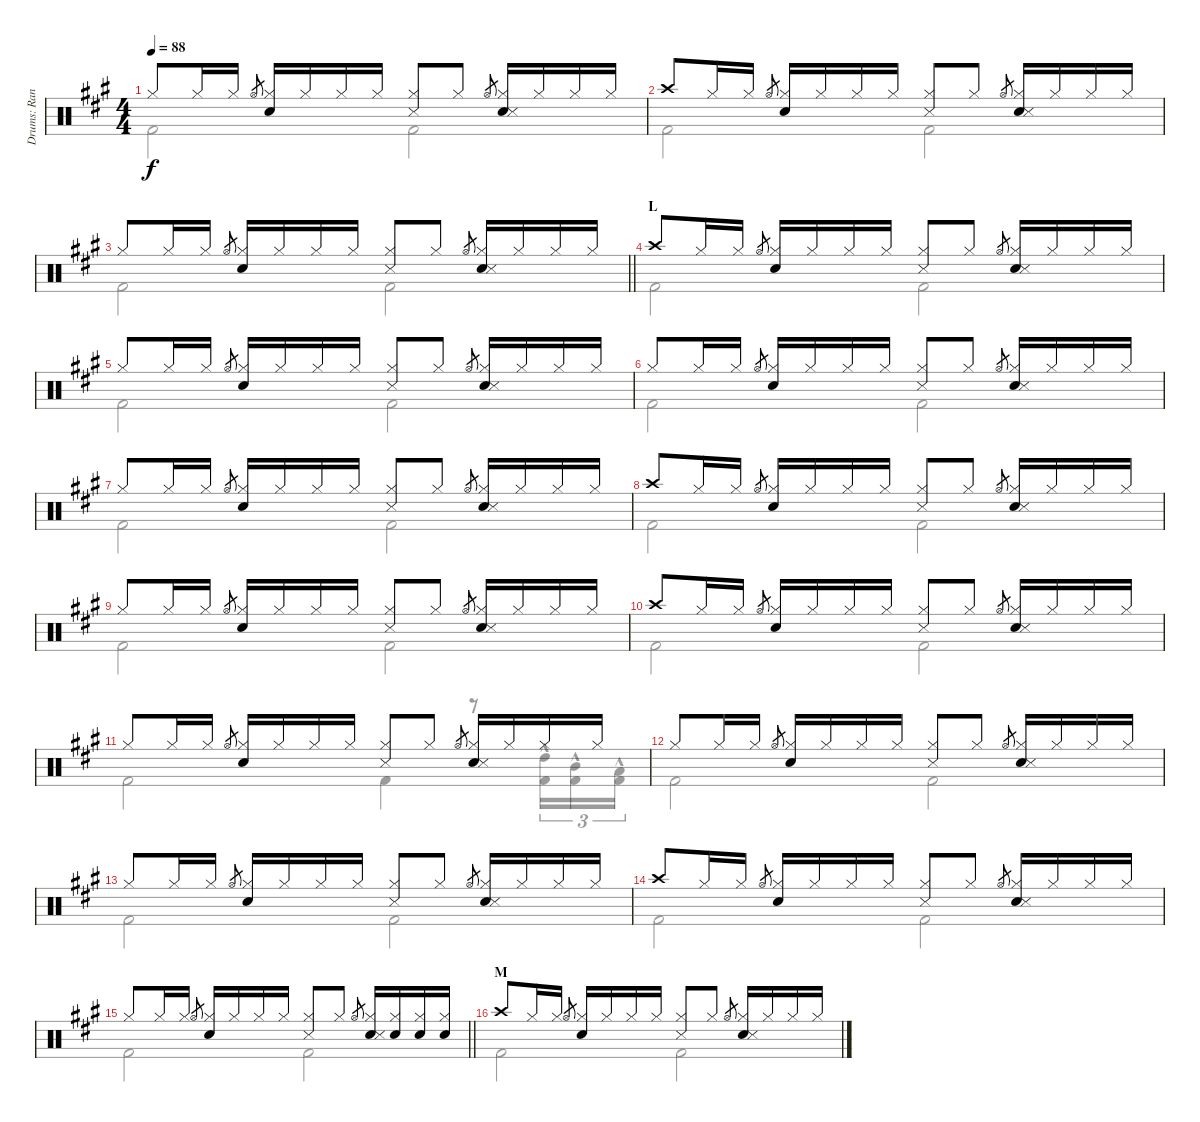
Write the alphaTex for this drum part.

\track ("Drums: Randy" "Drums: Ran") {instrument percussion}
\staff {score}
\articulation defaults
\voice
\ts (4 4)
\tempo 88
\clef neutral
\ks a "Hi-Hat (closed)".8{dy f} "Hi-Hat (closed)".16 "Hi-Hat (closed)".16 "Hi-Hat (open)".8{gr}
("Hi-Hat (closed)" "Electric Snare (hit)").16 "Hi-Hat (closed)".16 "Hi-Hat (closed)".16 "Hi-Hat (closed)".16 ("Hi-Hat (closed)" "Snare (side stick) 3").8 "Hi-Hat (closed)".8 "Hi-Hat (open)".8{gr} ("Hi-Hat (closed)" "Electric Snare (hit)" "Snare (side stick) 3").16 "Hi-Hat (closed)".16 "Hi-Hat (closed)".16 "Hi-Hat (closed)".16 |
"Crash high (hit)".8 "Hi-Hat (closed)".16 "Hi-Hat (closed)".16 "Hi-Hat (open)".8{gr} ("Hi-Hat (closed)" "Electric Snare (hit)").16 "Hi-Hat (closed)".16 "Hi-Hat (closed)".16 "Hi-Hat (closed)".16 ("Hi-Hat (closed)" "Snare (side stick) 3").8 "Hi-Hat (closed)".8 "Hi-Hat (open)".8{gr} ("Hi-Hat (closed)" "Electric Snare (hit)" "Snare (side stick) 3").16 "Hi-Hat (closed)".16 "Hi-Hat (closed)".16 "Hi-Hat (closed)".16 |
\barLineRight lightlight "Hi-Hat (closed)".8 "Hi-Hat (closed)".16 "Hi-Hat (closed)".16 "Hi-Hat (open)".8{gr}
("Hi-Hat (closed)" "Electric Snare (hit)").16 "Hi-Hat (closed)".16 "Hi-Hat (closed)".16 "Hi-Hat (closed)".16 ("Hi-Hat (closed)" "Snare (side stick) 3").8 "Hi-Hat (closed)".8 "Hi-Hat (open)".8{gr} ("Hi-Hat (closed)" "Electric Snare (hit)" "Snare (side stick) 3").16 "Hi-Hat (closed)".16 "Hi-Hat (closed)".16 "Hi-Hat (closed)".16 |
\section ("" "L")
"Crash high (hit)".8 "Hi-Hat (closed)".16 "Hi-Hat (closed)".16 "Hi-Hat (open)".8{gr} ("Hi-Hat (closed)" "Electric Snare (hit)").16 "Hi-Hat (closed)".16 "Hi-Hat (closed)".16 "Hi-Hat (closed)".16 ("Hi-Hat (closed)" "Snare (side stick) 3").8 "Hi-Hat (closed)".8 "Hi-Hat (open)".8{gr} ("Hi-Hat (closed)" "Electric Snare (hit)" "Snare (side stick) 3").16 "Hi-Hat (closed)".16 "Hi-Hat (closed)".16 "Hi-Hat (closed)".16 |
"Hi-Hat (closed)".8 "Hi-Hat (closed)".16 "Hi-Hat (closed)".16 "Hi-Hat (open)".8{gr} ("Hi-Hat (closed)" "Electric Snare (hit)").16 "Hi-Hat (closed)".16 "Hi-Hat (closed)".16 "Hi-Hat (closed)".16 ("Hi-Hat (closed)" "Snare (side stick) 3").8 "Hi-Hat (closed)".8 "Hi-Hat (open)".8{gr} ("Hi-Hat (closed)" "Electric Snare (hit)" "Snare (side stick) 3").16 "Hi-Hat (closed)".16 "Hi-Hat (closed)".16 "Hi-Hat (closed)".16 |
"Hi-Hat (closed)".8 "Hi-Hat (closed)".16 "Hi-Hat (closed)".16 "Hi-Hat (open)".8{gr} ("Hi-Hat (closed)" "Electric Snare (hit)").16 "Hi-Hat (closed)".16 "Hi-Hat (closed)".16 "Hi-Hat (closed)".16 ("Hi-Hat (closed)" "Snare (side stick) 3").8 "Hi-Hat (closed)".8 "Hi-Hat (open)".8{gr} ("Hi-Hat (closed)" "Electric Snare (hit)" "Snare (side stick) 3").16 "Hi-Hat (closed)".16 "Hi-Hat (closed)".16 "Hi-Hat (closed)".16 |
"Hi-Hat (closed)".8 "Hi-Hat (closed)".16 "Hi-Hat (closed)".16 "Hi-Hat (open)".8{gr} ("Hi-Hat (closed)" "Electric Snare (hit)").16 "Hi-Hat (closed)".16 "Hi-Hat (closed)".16 "Hi-Hat (closed)".16 ("Hi-Hat (closed)" "Snare (side stick) 3").8 "Hi-Hat (closed)".8 "Hi-Hat (open)".8{gr} ("Hi-Hat (closed)" "Electric Snare (hit)" "Snare (side stick) 3").16 "Hi-Hat (closed)".16 "Hi-Hat (closed)".16 "Hi-Hat (closed)".16 |
"Crash high (hit)".8 "Hi-Hat (closed)".16 "Hi-Hat (closed)".16 "Hi-Hat (open)".8{gr} ("Hi-Hat (closed)" "Electric Snare (hit)").16 "Hi-Hat (closed)".16 "Hi-Hat (closed)".16 "Hi-Hat (closed)".16 ("Hi-Hat (closed)" "Snare (side stick) 3").8 "Hi-Hat (closed)".8 "Hi-Hat (open)".8{gr} ("Hi-Hat (closed)" "Electric Snare (hit)" "Snare (side stick) 3").16 "Hi-Hat (closed)".16 "Hi-Hat (closed)".16 "Hi-Hat (closed)".16 |
"Hi-Hat (closed)".8 "Hi-Hat (closed)".16 "Hi-Hat (closed)".16 "Hi-Hat (open)".8{gr} ("Hi-Hat (closed)" "Electric Snare (hit)").16 "Hi-Hat (closed)".16 "Hi-Hat (closed)".16 "Hi-Hat (closed)".16 ("Hi-Hat (closed)" "Snare (side stick) 3").8 "Hi-Hat (closed)".8 "Hi-Hat (open)".8{gr} ("Hi-Hat (closed)" "Electric Snare (hit)" "Snare (side stick) 3").16 "Hi-Hat (closed)".16 "Hi-Hat (closed)".16 "Hi-Hat (closed)".16 |
"Crash high (hit)".8 "Hi-Hat (closed)".16 "Hi-Hat (closed)".16 "Hi-Hat (open)".8{gr} ("Hi-Hat (closed)" "Electric Snare (hit)").16 "Hi-Hat (closed)".16 "Hi-Hat (closed)".16 "Hi-Hat (closed)".16 ("Hi-Hat (closed)" "Snare (side stick) 3").8 "Hi-Hat (closed)".8 "Hi-Hat (open)".8{gr} ("Hi-Hat (closed)" "Electric Snare (hit)" "Snare (side stick) 3").16 "Hi-Hat (closed)".16 "Hi-Hat (closed)".16 "Hi-Hat (closed)".16 |
"Hi-Hat (closed)".8 "Hi-Hat (closed)".16 "Hi-Hat (closed)".16 "Hi-Hat (open)".8{gr} ("Hi-Hat (closed)" "Electric Snare (hit)").16 "Hi-Hat (closed)".16 "Hi-Hat (closed)".16 "Hi-Hat (closed)".16 ("Hi-Hat (closed)" "Snare (side stick) 3").8 "Hi-Hat (closed)".8 "Hi-Hat (open)".8{gr} ("Hi-Hat (closed)" "Electric Snare (hit)" "Snare (side stick) 3").16 "Hi-Hat (closed)".16 "Hi-Hat (closed)".16 "Hi-Hat (closed)".16 |
"Hi-Hat (closed)".8 "Hi-Hat (closed)".16 "Hi-Hat (closed)".16 "Hi-Hat (open)".8{gr} ("Hi-Hat (closed)" "Electric Snare (hit)").16 "Hi-Hat (closed)".16 "Hi-Hat (closed)".16 "Hi-Hat (closed)".16 ("Hi-Hat (closed)" "Snare (side stick) 3").8 "Hi-Hat (closed)".8 "Hi-Hat (open)".8{gr} ("Hi-Hat (closed)" "Electric Snare (hit)" "Snare (side stick) 3").16 "Hi-Hat (closed)".16 "Hi-Hat (closed)".16 "Hi-Hat (closed)".16 |
"Hi-Hat (closed)".8 "Hi-Hat (closed)".16 "Hi-Hat (closed)".16 "Hi-Hat (open)".8{gr} ("Hi-Hat (closed)" "Electric Snare (hit)").16 "Hi-Hat (closed)".16 "Hi-Hat (closed)".16 "Hi-Hat (closed)".16 ("Hi-Hat (closed)" "Snare (side stick) 3").8 "Hi-Hat (closed)".8 "Hi-Hat (open)".8{gr} ("Hi-Hat (closed)" "Electric Snare (hit)" "Snare (side stick) 3").16 "Hi-Hat (closed)".16 "Hi-Hat (closed)".16 "Hi-Hat (closed)".16 |
"Crash high (hit)".8 "Hi-Hat (closed)".16 "Hi-Hat (closed)".16 "Hi-Hat (open)".8{gr} ("Hi-Hat (closed)" "Electric Snare (hit)").16 "Hi-Hat (closed)".16 "Hi-Hat (closed)".16 "Hi-Hat (closed)".16 ("Hi-Hat (closed)" "Snare (side stick) 3").8 "Hi-Hat (closed)".8 "Hi-Hat (open)".8{gr} ("Hi-Hat (closed)" "Electric Snare (hit)" "Snare (side stick) 3").16 "Hi-Hat (closed)".16 "Hi-Hat (closed)".16 "Hi-Hat (closed)".16 |
\barLineRight lightlight "Hi-Hat (closed)".8 "Hi-Hat (closed)".16 "Hi-Hat (closed)".16 "Hi-Hat (open)".8{gr}
("Hi-Hat (closed)" "Electric Snare (hit)").16 "Hi-Hat (closed)".16 "Hi-Hat (closed)".16 "Hi-Hat (closed)".16 ("Hi-Hat (closed)" "Snare (side stick) 3").8 "Hi-Hat (closed)".8 "Hi-Hat (open)".8{gr} ("Hi-Hat (closed)" "Electric Snare (hit)" "Snare (side stick) 3").16 ("Hi-Hat (closed)" "Snare (hit) 2").16 ("Hi-Hat (closed)" "Snare (hit) 2").16 ("Hi-Hat (closed)" "Snare (hit) 2").16 |
\section ("" "M")
"Crash high (hit)".8 "Hi-Hat (closed)".16 "Hi-Hat (closed)".16 "Hi-Hat (open)".8{gr} ("Hi-Hat (closed)" "Electric Snare (hit)").16 "Hi-Hat (closed)".16 "Hi-Hat (closed)".16 "Hi-Hat (closed)".16 ("Hi-Hat (closed)" "Snare (side stick) 3").8 "Hi-Hat (closed)".8 "Hi-Hat (open)".8{gr} ("Hi-Hat (closed)" "Electric Snare (hit)" "Snare (side stick) 3").16 "Hi-Hat (closed)".16 "Hi-Hat (closed)".16 "Hi-Hat (closed)".16
\voice
\clef neutral
\ottava regular
\simile none
\ks a "Kick (hit) 2".2{dy f} "Kick (hit) 2".2
|
"Kick (hit) 2".2 "Kick (hit) 2".2 |
\barLineRight lightlight "Kick (hit) 2".2 "Kick (hit) 2".2
|
"Kick (hit) 2".2 "Kick (hit) 2".2 |
"Kick (hit) 2".2 "Kick (hit) 2".2 |
"Kick (hit) 2".2 "Kick (hit) 2".2 |
"Kick (hit) 2".2 "Kick (hit) 2".2 |
"Kick (hit) 2".2 "Kick (hit) 2".2 |
"Kick (hit) 2".2 "Kick (hit) 2".2 |
"Kick (hit) 2".2 "Kick (hit) 2".2 |
"Kick (hit) 2".2 "Kick (hit) 2".4 r.8 ("High Tom (hit)"{hac} "Kick (hit) 2"{hac}).16{tu (3 2)} ("Mid Tom (hit)"{hac} "Kick (hit) 2"{hac}).16{tu (3 2)} ("Low Tom (hit)"{hac} "Kick (hit) 2"{hac}).16{tu (3 2)} |
"Kick (hit) 2".2 "Kick (hit) 2".2 |
"Kick (hit) 2".2 "Kick (hit) 2".2 |
"Kick (hit) 2".2 "Kick (hit) 2".2 |
\barLineRight lightlight "Kick (hit) 2".2 "Kick (hit) 2".2
|
"Kick (hit) 2".2 "Kick (hit) 2".2
